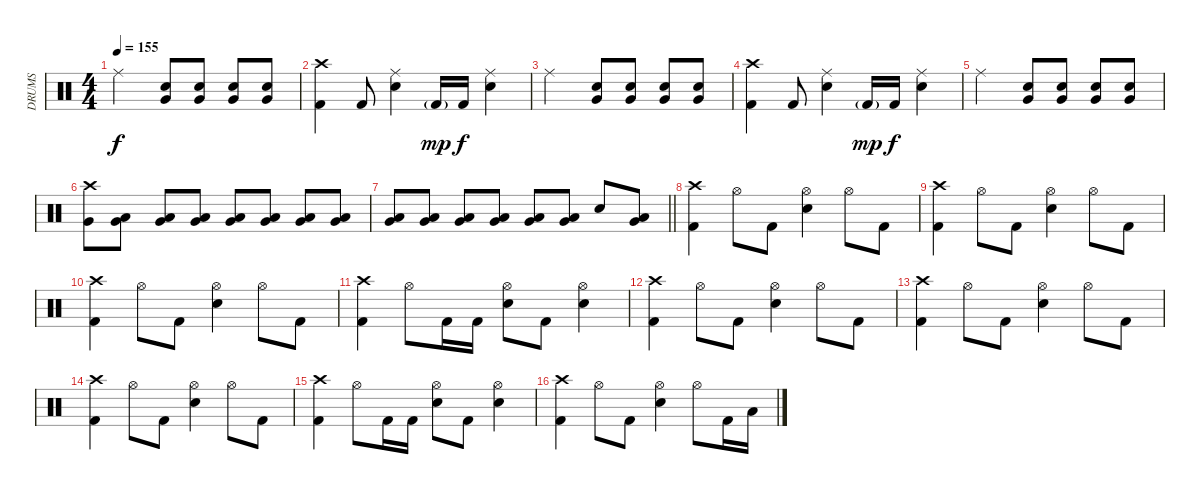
\track ("DRUMS" "DRUMS") {instrument percussion}
\staff {score}
\articulation defaults
\ts (4 4)
\tempo 155
\clef neutral
\ks c "Ride (middle)".2{dy f}
("Very Low Tom (hit)" "Electric Snare (hit)").8 ("Very Low Tom (hit)" "Electric Snare (hit)").8 ("Very Low Tom (hit)" "Electric Snare (hit)").8 ("Very Low Tom (hit)" "Electric Snare (hit)").8 |
("Crash high (hit)" "Kick (hit) 2").4 "Kick (hit) 2".8 ("Ride (middle)" "Electric Snare (hit)").4 "Kick (hit) 2"{g}.16{dy mp} "Kick (hit) 2".16{dy f} ("Ride (middle)" "Electric Snare (hit)").4 |
"Ride (middle)".2 ("Very Low Tom (hit)" "Electric Snare (hit)").8 ("Very Low Tom (hit)" "Electric Snare (hit)").8 ("Very Low Tom (hit)" "Electric Snare (hit)").8 ("Very Low Tom (hit)" "Electric Snare (hit)").8 |
("Crash high (hit)" "Kick (hit) 2").4 "Kick (hit) 2".8 ("Ride (middle)" "Electric Snare (hit)").4 "Kick (hit) 2"{g}.16{dy mp} "Kick (hit) 2".16{dy f} ("Ride (middle)" "Electric Snare (hit)").4 |
"Ride (middle)".2 ("Very Low Tom (hit)" "Electric Snare (hit)").8 ("Very Low Tom (hit)" "Electric Snare (hit)").8 ("Very Low Tom (hit)" "Electric Snare (hit)").8 ("Very Low Tom (hit)" "Electric Snare (hit)").8 |
("Crash high (hit)" "Very Low Tom (hit)").8 ("Low Tom (hit)" "Very Low Tom (hit)").8 ("Low Tom (hit)" "Very Low Tom (hit)").8 ("Low Tom (hit)" "Very Low Tom (hit)").8 ("Low Tom (hit)" "Very Low Tom (hit)").8 ("Low Tom (hit)" "Very Low Tom (hit)").8 ("Low Tom (hit)" "Very Low Tom (hit)").8 ("Low Tom (hit)" "Very Low Tom (hit)").8 |
\barLineRight lightlight
("Low Tom (hit)" "Very Low Tom (hit)").8 ("Low Tom (hit)" "Very Low Tom (hit)").8 ("Low Tom (hit)" "Very Low Tom (hit)").8 ("Low Tom (hit)" "Very Low Tom (hit)").8 ("Low Tom (hit)" "Very Low Tom (hit)").8 ("Low Tom (hit)" "Very Low Tom (hit)").8 "Electric Snare (hit)".8 ("Low Tom (hit)" "Very Low Tom (hit)").8 |
\section ("" "")
("Crash high (hit)" "Kick (hit) 2").4 "Hi-Hat (open)".8 "Kick (hit) 2".8 ("Hi-Hat (open)" "Electric Snare (hit)").4 "Hi-Hat (open)".8 "Kick (hit) 2".8 |
("Crash high (hit)" "Kick (hit) 2").4 "Hi-Hat (open)".8 "Kick (hit) 2".8 ("Hi-Hat (open)" "Electric Snare (hit)").4 "Hi-Hat (open)".8 "Kick (hit) 2".8 |
("Crash high (hit)" "Kick (hit) 2").4 "Hi-Hat (open)".8 "Kick (hit) 2".8 ("Hi-Hat (open)" "Electric Snare (hit)").4 "Hi-Hat (open)".8 "Kick (hit) 2".8 |
("Crash high (hit)" "Kick (hit) 2").4 "Hi-Hat (open)".8 "Kick (hit) 2".16 "Kick (hit) 2".16 ("Hi-Hat (open)" "Electric Snare (hit)").8 "Kick (hit) 2".8 ("Hi-Hat (open)" "Electric Snare (hit)").4 |
("Crash high (hit)" "Kick (hit) 2").4 "Hi-Hat (open)".8 "Kick (hit) 2".8 ("Hi-Hat (open)" "Electric Snare (hit)").4 "Hi-Hat (open)".8 "Kick (hit) 2".8 |
("Crash high (hit)" "Kick (hit) 2").4 "Hi-Hat (open)".8 "Kick (hit) 2".8 ("Hi-Hat (open)" "Electric Snare (hit)").4 "Hi-Hat (open)".8 "Kick (hit) 2".8 |
("Crash high (hit)" "Kick (hit) 2").4 "Hi-Hat (open)".8 "Kick (hit) 2".8 ("Hi-Hat (open)" "Electric Snare (hit)").4 "Hi-Hat (open)".8 "Kick (hit) 2".8 |
("Crash high (hit)" "Kick (hit) 2").4 "Hi-Hat (open)".8 "Kick (hit) 2".16 "Kick (hit) 2".16 ("Hi-Hat (open)" "Electric Snare (hit)").8 "Kick (hit) 2".8 ("Hi-Hat (open)" "Electric Snare (hit)").4 |
("Crash high (hit)" "Kick (hit) 2").4 "Hi-Hat (open)".8 "Kick (hit) 2".8 ("Hi-Hat (open)" "Electric Snare (hit)").4 "Hi-Hat (open)".8 "Kick (hit) 2".16 "Low Floor Tom (hit)".16
